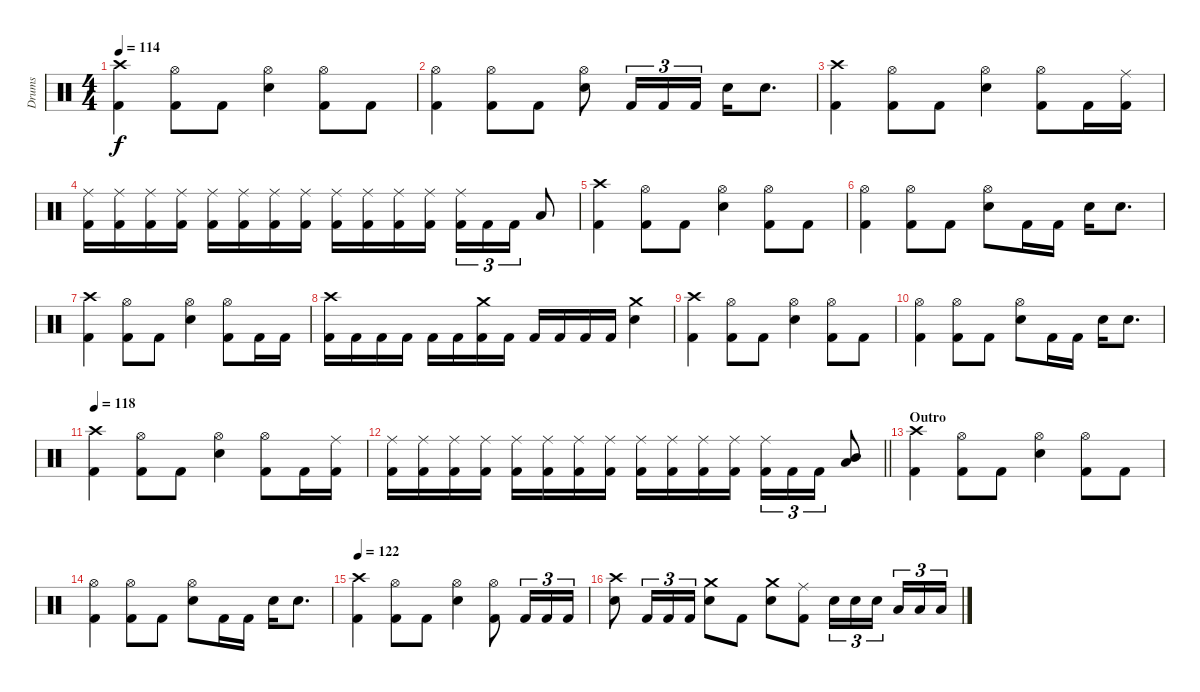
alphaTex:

\track ("Drums" "Drums") {instrument percussion}
\staff {score}
\articulation defaults
\ts (4 4)
\tempo 114
\clef neutral
\ks c
("Crash high (hit)" "Kick (hit) 2").4{dy f} ("Hi-Hat (open)" "Kick (hit) 2").8 "Kick (hit) 2".8 ("Hi-Hat (open)" "Electric Snare (hit)").4 ("Hi-Hat (open)" "Kick (hit) 2").8 "Kick (hit) 2".8 |
("Hi-Hat (open)" "Kick (hit) 2").4 ("Hi-Hat (open)" "Kick (hit) 2").8 "Kick (hit) 2".8 ("Hi-Hat (open)" "Electric Snare (hit)").8 "Kick (hit) 2".16{tu (3 2)} "Kick (hit) 2".16{tu (3 2)} "Kick (hit) 2".16{tu (3 2)} "Electric Snare (hit)".16 "Electric Snare (hit)".8{d} |
("Crash high (hit)" "Kick (hit) 2").4 ("Hi-Hat (open)" "Kick (hit) 2").8 "Kick (hit) 2".8 ("Hi-Hat (open)" "Electric Snare (hit)").4 ("Hi-Hat (open)" "Kick (hit) 2").8 "Kick (hit) 2".16 ("Ride (middle)" "Kick (hit) 2").16 |
("Ride (middle)" "Kick (hit) 2").16 ("Ride (middle)" "Kick (hit) 2").16 ("Ride (middle)" "Kick (hit) 2").16 ("Ride (middle)" "Kick (hit) 2").16 ("Ride (middle)" "Kick (hit) 2").16 ("Ride (middle)" "Kick (hit) 2").16 ("Ride (middle)" "Kick (hit) 2").16 ("Ride (middle)" "Kick (hit) 2").16 ("Ride (middle)" "Kick (hit) 2").16 ("Ride (middle)" "Kick (hit) 2").16 ("Ride (middle)" "Kick (hit) 2").16 ("Ride (middle)" "Kick (hit) 2").16 ("Ride (middle)" "Kick (hit) 2").16{tu (3 2)} "Kick (hit) 2".16{tu (3 2)} "Kick (hit) 2".16{tu (3 2)} "Low Tom (hit)".8 |
("Crash high (hit)" "Kick (hit) 2").4 ("Hi-Hat (open)" "Kick (hit) 2").8 "Kick (hit) 2".8 ("Hi-Hat (open)" "Electric Snare (hit)").4 ("Hi-Hat (open)" "Kick (hit) 2").8 "Kick (hit) 2".8 |
("Hi-Hat (open)" "Kick (hit) 2").4 ("Hi-Hat (open)" "Kick (hit) 2").8 "Kick (hit) 2".8 ("Hi-Hat (open)" "Electric Snare (hit)").8 "Kick (hit) 2".16 "Kick (hit) 2".16 "Electric Snare (hit)".16 "Electric Snare (hit)".8{d} |
("Crash high (hit)" "Kick (hit) 2").4 ("Hi-Hat (open)" "Kick (hit) 2").8 "Kick (hit) 2".8 ("Hi-Hat (open)" "Electric Snare (hit)").4 ("Hi-Hat (open)" "Kick (hit) 2").8 "Kick (hit) 2".16 "Kick (hit) 2".16 |
("Crash high (hit)" "Kick (hit) 2").16 "Kick (hit) 2".16 "Kick (hit) 2".16 "Kick (hit) 2".16 "Kick (hit) 2".16 "Kick (hit) 2".16 ("Crash medium (hit)" "Kick (hit) 2").16 "Kick (hit) 2".16 "Kick (hit) 2".16 "Kick (hit) 2".16 "Kick (hit) 2".16 "Kick (hit) 2".16 ("Crash medium (hit)" "Electric Snare (hit)").4 |
("Crash high (hit)" "Kick (hit) 2").4 ("Hi-Hat (open)" "Kick (hit) 2").8 "Kick (hit) 2".8 ("Hi-Hat (open)" "Electric Snare (hit)").4 ("Hi-Hat (open)" "Kick (hit) 2").8 "Kick (hit) 2".8 |
("Hi-Hat (open)" "Kick (hit) 2").4 ("Hi-Hat (open)" "Kick (hit) 2").8 "Kick (hit) 2".8 ("Hi-Hat (open)" "Electric Snare (hit)").8 "Kick (hit) 2".16 "Kick (hit) 2".16 "Electric Snare (hit)".16 "Electric Snare (hit)".8{d} |
\tempo 118
("Crash high (hit)" "Kick (hit) 2").4 ("Hi-Hat (open)" "Kick (hit) 2").8 "Kick (hit) 2".8 ("Hi-Hat (open)" "Electric Snare (hit)").4 ("Hi-Hat (open)" "Kick (hit) 2").8 "Kick (hit) 2".16 ("Ride (middle)" "Kick (hit) 2").16 |
\barLineRight lightlight
("Ride (middle)" "Kick (hit) 2").16 ("Ride (middle)" "Kick (hit) 2").16 ("Ride (middle)" "Kick (hit) 2").16 ("Ride (middle)" "Kick (hit) 2").16 ("Ride (middle)" "Kick (hit) 2").16 ("Ride (middle)" "Kick (hit) 2").16 ("Ride (middle)" "Kick (hit) 2").16 ("Ride (middle)" "Kick (hit) 2").16 ("Ride (middle)" "Kick (hit) 2").16 ("Ride (middle)" "Kick (hit) 2").16 ("Ride (middle)" "Kick (hit) 2").16 ("Ride (middle)" "Kick (hit) 2").16 ("Ride (middle)" "Kick (hit) 2").16{tu (3 2)} "Kick (hit) 2".16{tu (3 2)} "Kick (hit) 2".16{tu (3 2)} ("Mid Tom (hit)" "Low Tom (hit)").8{bu 60} |
\section ("" "Outro")
("Crash high (hit)" "Kick (hit) 2").4 ("Hi-Hat (open)" "Kick (hit) 2").8 "Kick (hit) 2".8 ("Hi-Hat (open)" "Electric Snare (hit)").4 ("Hi-Hat (open)" "Kick (hit) 2").8 "Kick (hit) 2".8 |
("Hi-Hat (open)" "Kick (hit) 2").4 ("Hi-Hat (open)" "Kick (hit) 2").8 "Kick (hit) 2".8 ("Hi-Hat (open)" "Electric Snare (hit)").8 "Kick (hit) 2".16 "Kick (hit) 2".16 "Electric Snare (hit)".16 "Electric Snare (hit)".8{d} |
\tempo 122
("Crash high (hit)" "Kick (hit) 2").4 ("Hi-Hat (open)" "Kick (hit) 2").8 "Kick (hit) 2".8 ("Hi-Hat (open)" "Electric Snare (hit)").4 ("Hi-Hat (open)" "Kick (hit) 2").8 "Kick (hit) 2".16{tu (3 2)} "Kick (hit) 2".16{tu (3 2)} "Kick (hit) 2".16{tu (3 2)} |
("Crash high (hit)" "Electric Snare (hit)").8 "Kick (hit) 2".16{tu (3 2)} "Kick (hit) 2".16{tu (3 2)} "Kick (hit) 2".16{tu (3 2)} ("Crash medium (hit)" "Electric Snare (hit)").8 "Kick (hit) 2".8 ("Crash medium (hit)" "Electric Snare (hit)").8 ("Ride (middle)" "Kick (hit) 2").8 "Electric Snare (hit)".16{tu (3 2)} "Electric Snare (hit)".16{tu (3 2)} "Electric Snare (hit)".16{tu (3 2) beam splitsecondary} "Low Tom (hit)".16{tu (3 2)} "Low Tom (hit)".16{tu (3 2)} "Low Tom (hit)".16{tu (3 2)}
